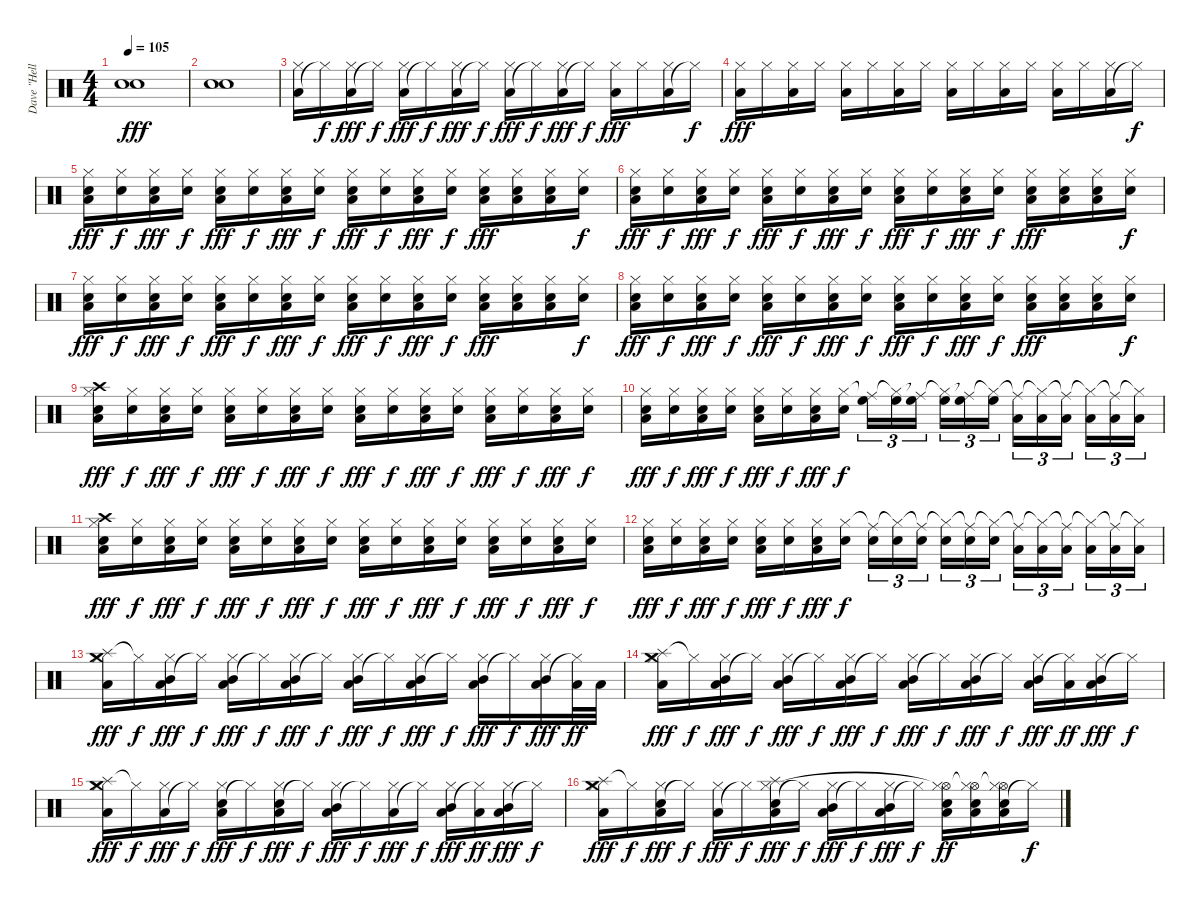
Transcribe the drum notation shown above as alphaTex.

\track ("Dave \"Hellstorm\" Chiarella" "Dave \"Hell") {solo instrument percussion}
\staff {score}
\articulation defaults
\ts (4 4)
\tempo 105
\clef neutral
\ks c
("Electric Snare (hit)" "Electric Snare (hit)").1{dy fff} |
("Electric Snare (hit)" "Electric Snare (hit)").1 |
("Low Floor Tom (hit)" "Hi-Hat (closed)").16 "Hi-Hat (closed)"{t}.16{dy f} ("Low Floor Tom (hit)" "Hi-Hat (closed)").16{dy fff} "Hi-Hat (closed)"{t}.16{dy f} ("Low Floor Tom (hit)" "Hi-Hat (closed)").16{dy fff} "Hi-Hat (closed)"{t}.16{dy f} ("Low Floor Tom (hit)" "Hi-Hat (closed)").16{dy fff} "Hi-Hat (closed)"{t}.16{dy f} ("Low Floor Tom (hit)" "Hi-Hat (closed)").16{dy fff} "Hi-Hat (closed)"{t}.16{dy f} ("Low Floor Tom (hit)" "Hi-Hat (closed)").16{dy fff} "Hi-Hat (closed)"{t}.16{dy f} ("Low Floor Tom (hit)" "Hi-Hat (closed)").16{dy fff} "Hi-Hat (closed)".16 ("Low Floor Tom (hit)" "Hi-Hat (closed)").16 "Hi-Hat (closed)"{t}.16{dy f} |
("Low Floor Tom (hit)" "Hi-Hat (closed)").16{dy fff} "Hi-Hat (closed)".16 ("Low Floor Tom (hit)" "Hi-Hat (closed)").16 "Hi-Hat (closed)".16 ("Low Floor Tom (hit)" "Hi-Hat (closed)").16 "Hi-Hat (closed)".16 ("Low Floor Tom (hit)" "Hi-Hat (closed)").16 "Hi-Hat (closed)".16 ("Low Floor Tom (hit)" "Hi-Hat (closed)").16 "Hi-Hat (closed)".16 ("Low Floor Tom (hit)" "Hi-Hat (closed)").16 "Hi-Hat (closed)".16 ("Low Floor Tom (hit)" "Hi-Hat (closed)").16 "Hi-Hat (closed)".16 ("Low Floor Tom (hit)" "Hi-Hat (closed)").16 "Hi-Hat (closed)"{t}.16{dy f} |
("Electric Snare (hit)" "Low Floor Tom (hit)" "Hi-Hat (closed)").16{dy fff} ("Electric Snare (hit)" "Hi-Hat (closed)").16{dy f} ("Electric Snare (hit)" "Low Floor Tom (hit)" "Hi-Hat (closed)").16{dy fff} ("Electric Snare (hit)" "Hi-Hat (closed)").16{dy f} ("Electric Snare (hit)" "Low Floor Tom (hit)" "Hi-Hat (closed)").16{dy fff} ("Electric Snare (hit)" "Hi-Hat (closed)").16{dy f} ("Electric Snare (hit)" "Low Floor Tom (hit)" "Hi-Hat (closed)").16{dy fff} ("Electric Snare (hit)" "Hi-Hat (closed)").16{dy f} ("Electric Snare (hit)" "Low Floor Tom (hit)" "Hi-Hat (closed)").16{dy fff} ("Electric Snare (hit)" "Hi-Hat (closed)").16{dy f} ("Electric Snare (hit)" "Low Floor Tom (hit)" "Hi-Hat (closed)").16{dy fff} ("Electric Snare (hit)" "Hi-Hat (closed)").16{dy f} ("Electric Snare (hit)" "Low Floor Tom (hit)" "Hi-Hat (closed)").16{dy fff} ("Electric Snare (hit)" "Low Floor Tom (hit)" "Hi-Hat (closed)").16 ("Electric Snare (hit)" "Low Floor Tom (hit)" "Hi-Hat (closed)").16 ("Electric Snare (hit)" "Hi-Hat (closed)").16{dy f} |
("Electric Snare (hit)" "Low Floor Tom (hit)" "Hi-Hat (closed)").16{dy fff} ("Electric Snare (hit)" "Hi-Hat (closed)").16{dy f} ("Electric Snare (hit)" "Low Floor Tom (hit)" "Hi-Hat (closed)").16{dy fff} ("Electric Snare (hit)" "Hi-Hat (closed)").16{dy f} ("Electric Snare (hit)" "Low Floor Tom (hit)" "Hi-Hat (closed)").16{dy fff} ("Electric Snare (hit)" "Hi-Hat (closed)").16{dy f} ("Electric Snare (hit)" "Low Floor Tom (hit)" "Hi-Hat (closed)").16{dy fff} ("Electric Snare (hit)" "Hi-Hat (closed)").16{dy f} ("Electric Snare (hit)" "Low Floor Tom (hit)" "Hi-Hat (closed)").16{dy fff} ("Electric Snare (hit)" "Hi-Hat (closed)").16{dy f} ("Electric Snare (hit)" "Low Floor Tom (hit)" "Hi-Hat (closed)").16{dy fff} ("Electric Snare (hit)" "Hi-Hat (closed)").16{dy f} ("Electric Snare (hit)" "Low Floor Tom (hit)" "Hi-Hat (closed)").16{dy fff} ("Electric Snare (hit)" "Low Floor Tom (hit)" "Hi-Hat (closed)").16 ("Electric Snare (hit)" "Low Floor Tom (hit)" "Hi-Hat (closed)").16 ("Electric Snare (hit)" "Hi-Hat (closed)").16{dy f} |
("Electric Snare (hit)" "Low Floor Tom (hit)" "Hi-Hat (closed)").16{dy fff} ("Electric Snare (hit)" "Hi-Hat (closed)").16{dy f} ("Electric Snare (hit)" "Low Floor Tom (hit)" "Hi-Hat (closed)").16{dy fff} ("Electric Snare (hit)" "Hi-Hat (closed)").16{dy f} ("Electric Snare (hit)" "Low Floor Tom (hit)" "Hi-Hat (closed)").16{dy fff} ("Electric Snare (hit)" "Hi-Hat (closed)").16{dy f} ("Electric Snare (hit)" "Low Floor Tom (hit)" "Hi-Hat (closed)").16{dy fff} ("Electric Snare (hit)" "Hi-Hat (closed)").16{dy f} ("Electric Snare (hit)" "Low Floor Tom (hit)" "Hi-Hat (closed)").16{dy fff} ("Electric Snare (hit)" "Hi-Hat (closed)").16{dy f} ("Electric Snare (hit)" "Low Floor Tom (hit)" "Hi-Hat (closed)").16{dy fff} ("Electric Snare (hit)" "Hi-Hat (closed)").16{dy f} ("Electric Snare (hit)" "Low Floor Tom (hit)" "Hi-Hat (closed)").16{dy fff} ("Electric Snare (hit)" "Low Floor Tom (hit)" "Hi-Hat (closed)").16 ("Electric Snare (hit)" "Low Floor Tom (hit)" "Hi-Hat (closed)").16 ("Electric Snare (hit)" "Hi-Hat (closed)").16{dy f} |
("Electric Snare (hit)" "Low Floor Tom (hit)" "Hi-Hat (closed)").16{dy fff} ("Electric Snare (hit)" "Hi-Hat (closed)").16{dy f} ("Electric Snare (hit)" "Low Floor Tom (hit)" "Hi-Hat (closed)").16{dy fff} ("Electric Snare (hit)" "Hi-Hat (closed)").16{dy f} ("Electric Snare (hit)" "Low Floor Tom (hit)" "Hi-Hat (closed)").16{dy fff} ("Electric Snare (hit)" "Hi-Hat (closed)").16{dy f} ("Electric Snare (hit)" "Low Floor Tom (hit)" "Hi-Hat (closed)").16{dy fff} ("Electric Snare (hit)" "Hi-Hat (closed)").16{dy f} ("Electric Snare (hit)" "Low Floor Tom (hit)" "Hi-Hat (closed)").16{dy fff} ("Electric Snare (hit)" "Hi-Hat (closed)").16{dy f} ("Electric Snare (hit)" "Low Floor Tom (hit)" "Hi-Hat (closed)").16{dy fff} ("Electric Snare (hit)" "Hi-Hat (closed)").16{dy f} ("Electric Snare (hit)" "Low Floor Tom (hit)" "Hi-Hat (closed)").16{dy fff} ("Electric Snare (hit)" "Low Floor Tom (hit)" "Hi-Hat (closed)").16 ("Electric Snare (hit)" "Low Floor Tom (hit)" "Hi-Hat (closed)").16 ("Electric Snare (hit)" "Hi-Hat (closed)").16{dy f} |
("Electric Snare (hit)" "Crash high (hit)" "Low Floor Tom (hit)" "Hi-Hat (closed)").16{dy fff} ("Electric Snare (hit)" "Hi-Hat (closed)").16{dy f} ("Electric Snare (hit)" "Low Floor Tom (hit)" "Hi-Hat (closed)").16{dy fff} ("Electric Snare (hit)" "Hi-Hat (closed)").16{dy f} ("Electric Snare (hit)" "Low Floor Tom (hit)" "Hi-Hat (closed)").16{dy fff} ("Electric Snare (hit)" "Hi-Hat (closed)").16{dy f} ("Electric Snare (hit)" "Low Floor Tom (hit)" "Hi-Hat (closed)").16{dy fff} ("Electric Snare (hit)" "Hi-Hat (closed)").16{dy f} ("Electric Snare (hit)" "Low Floor Tom (hit)" "Hi-Hat (closed)").16{dy fff} ("Electric Snare (hit)" "Hi-Hat (closed)").16{dy f} ("Electric Snare (hit)" "Low Floor Tom (hit)" "Hi-Hat (closed)").16{dy fff} ("Electric Snare (hit)" "Hi-Hat (closed)").16{dy f} ("Electric Snare (hit)" "Low Floor Tom (hit)" "Hi-Hat (closed)").16{dy fff} ("Electric Snare (hit)" "Hi-Hat (closed)").16{dy f} ("Electric Snare (hit)" "Low Floor Tom (hit)" "Hi-Hat (closed)").16{dy fff} ("Electric Snare (hit)" "Hi-Hat (closed)").16{dy f} |
("Electric Snare (hit)" "Low Floor Tom (hit)" "Hi-Hat (closed)").16{dy fff} ("Electric Snare (hit)" "Hi-Hat (closed)").16{dy f} ("Electric Snare (hit)" "Low Floor Tom (hit)" "Hi-Hat (closed)").16{dy fff} ("Electric Snare (hit)" "Hi-Hat (closed)").16{dy f} ("Electric Snare (hit)" "Low Floor Tom (hit)" "Hi-Hat (closed)").16{dy fff} ("Electric Snare (hit)" "Hi-Hat (closed)").16{dy f} ("Electric Snare (hit)" "Low Floor Tom (hit)" "Hi-Hat (closed)").16{dy fff} ("Electric Snare (hit)" "Hi-Hat (closed)").16{dy f} ("High Floor Tom (hit)" "Ride (middle)"{t}).16{tu (3 2)} ("High Floor Tom (hit)" "Hi-Hat (closed)"{t}).16{tu (3 2)} ("High Floor Tom (hit)" "Ride (middle)"{t}).16{tu (3 2) beam splitsecondary} ("High Floor Tom (hit)" "Hi-Hat (closed)"{t}).16{tu (3 2)} ("High Floor Tom (hit)" "Ride (middle)"{t}).16{tu (3 2)} ("High Floor Tom (hit)" "Hi-Hat (closed)"{t}).16{tu (3 2)} ("Low Tom (hit)" "Ride (middle)"{t}).16{tu (3 2)} ("Low Tom (hit)" "Hi-Hat (closed)"{t}).16{tu (3 2)} ("Low Tom (hit)" "Ride (middle)"{t}).16{tu (3 2) beam splitsecondary} ("Low Tom (hit)" "Hi-Hat (closed)"{t}).16{tu (3 2)} ("Low Tom (hit)" "Ride (middle)"{t}).16{tu (3 2)} ("Low Tom (hit)" "Hi-Hat (closed)"{t}).16{tu (3 2)} |
("Electric Snare (hit)" "Crash high (hit)" "Low Floor Tom (hit)" "Hi-Hat (closed)").16{dy fff} ("Electric Snare (hit)" "Hi-Hat (closed)").16{dy f} ("Electric Snare (hit)" "Low Floor Tom (hit)" "Hi-Hat (closed)").16{dy fff} ("Electric Snare (hit)" "Hi-Hat (closed)").16{dy f} ("Electric Snare (hit)" "Low Floor Tom (hit)" "Hi-Hat (closed)").16{dy fff} ("Electric Snare (hit)" "Hi-Hat (closed)").16{dy f} ("Electric Snare (hit)" "Low Floor Tom (hit)" "Hi-Hat (closed)").16{dy fff} ("Electric Snare (hit)" "Hi-Hat (closed)").16{dy f} ("Electric Snare (hit)" "Low Floor Tom (hit)" "Hi-Hat (closed)").16{dy fff} ("Electric Snare (hit)" "Hi-Hat (closed)").16{dy f} ("Electric Snare (hit)" "Low Floor Tom (hit)" "Hi-Hat (closed)").16{dy fff} ("Electric Snare (hit)" "Hi-Hat (closed)").16{dy f} ("Electric Snare (hit)" "Low Floor Tom (hit)" "Hi-Hat (closed)").16{dy fff} ("Electric Snare (hit)" "Hi-Hat (closed)").16{dy f} ("Electric Snare (hit)" "Low Floor Tom (hit)" "Hi-Hat (closed)").16{dy fff} ("Electric Snare (hit)" "Hi-Hat (closed)").16{dy f} |
("Electric Snare (hit)" "Low Floor Tom (hit)" "Hi-Hat (closed)").16{dy fff} ("Electric Snare (hit)" "Hi-Hat (closed)").16{dy f} ("Electric Snare (hit)" "Low Floor Tom (hit)" "Hi-Hat (closed)").16{dy fff} ("Electric Snare (hit)" "Hi-Hat (closed)").16{dy f} ("Electric Snare (hit)" "Low Floor Tom (hit)" "Hi-Hat (closed)").16{dy fff} ("Electric Snare (hit)" "Hi-Hat (closed)").16{dy f} ("Electric Snare (hit)" "Low Floor Tom (hit)" "Hi-Hat (closed)").16{dy fff} ("Electric Snare (hit)" "Hi-Hat (closed)").16{dy f} ("Electric Snare (hit)" "Ride (middle)"{t}).16{tu (3 2)} ("Electric Snare (hit)" "Hi-Hat (closed)"{t}).16{tu (3 2)} ("Electric Snare (hit)" "Ride (middle)"{t}).16{tu (3 2) beam splitsecondary} ("Electric Snare (hit)" "Hi-Hat (closed)"{t}).16{tu (3 2)} ("Electric Snare (hit)" "Ride (middle)"{t}).16{tu (3 2)} ("Electric Snare (hit)" "Hi-Hat (closed)"{t}).16{tu (3 2)} ("Low Tom (hit)" "Ride (middle)"{t}).16{tu (3 2)} ("Low Tom (hit)" "Hi-Hat (closed)"{t}).16{tu (3 2)} ("Low Tom (hit)" "Ride (middle)"{t}).16{tu (3 2) beam splitsecondary} ("Low Tom (hit)" "Hi-Hat (closed)"{t}).16{tu (3 2)} ("Low Tom (hit)" "Ride (middle)"{t}).16{tu (3 2)} ("Low Tom (hit)" "Hi-Hat (closed)"{t}).16{tu (3 2)} |
("Splash (hit)" "Crash medium (hit)" "Low Floor Tom (hit)" "Hi-Hat (closed)").16{dy fff} "Hi-Hat (closed)"{t}.16{dy f} ("Mid Tom (hit)" "Low Floor Tom (hit)" "Hi-Hat (closed)").16{dy fff} "Hi-Hat (closed)"{t}.16{dy f} ("Mid Tom (hit)" "Low Floor Tom (hit)" "Hi-Hat (closed)").16{dy fff} "Hi-Hat (closed)"{t}.16{dy f} ("Mid Tom (hit)" "Low Floor Tom (hit)" "Hi-Hat (closed)").16{dy fff} "Hi-Hat (closed)"{t}.16{dy f} ("Mid Tom (hit)" "Low Floor Tom (hit)" "Hi-Hat (closed)").16{dy fff} "Hi-Hat (closed)"{t}.16{dy f} ("Mid Tom (hit)" "Low Floor Tom (hit)" "Hi-Hat (closed)").16{dy fff} "Hi-Hat (closed)"{t}.16{dy f} ("Mid Tom (hit)" "Low Floor Tom (hit)" "Hi-Hat (closed)").16{dy fff} "Hi-Hat (closed)"{t}.16{dy f} ("Mid Tom (hit)" "Low Floor Tom (hit)" "Hi-Hat (closed)").16{dy fff} ("Low Floor Tom (hit)" "Hi-Hat (closed)"{t}).32{dy ff} "Low Floor Tom (hit)".32 |
("Splash (hit)" "Crash medium (hit)" "Low Floor Tom (hit)" "Hi-Hat (closed)").16{dy fff} "Hi-Hat (closed)"{t}.16{dy f} ("Mid Tom (hit)" "Low Floor Tom (hit)" "Hi-Hat (closed)").16{dy fff} "Hi-Hat (closed)"{t}.16{dy f} ("Mid Tom (hit)" "Low Floor Tom (hit)" "Hi-Hat (closed)").16{dy fff} "Hi-Hat (closed)"{t}.16{dy f} ("Mid Tom (hit)" "Low Floor Tom (hit)" "Hi-Hat (closed)").16{dy fff} "Hi-Hat (closed)"{t}.16{dy f} ("Mid Tom (hit)" "Low Floor Tom (hit)" "Hi-Hat (closed)").16{dy fff} "Hi-Hat (closed)"{t}.16{dy f} ("Mid Tom (hit)" "Low Floor Tom (hit)" "Hi-Hat (closed)").16{dy fff} "Hi-Hat (closed)"{t}.16{dy f} ("Mid Tom (hit)" "Low Floor Tom (hit)" "Hi-Hat (closed)").16{dy fff} ("Low Floor Tom (hit)" "Hi-Hat (closed)"{t}).16{dy ff} ("Mid Tom (hit)" "Low Floor Tom (hit)" "Hi-Hat (closed)").16{dy fff} "Hi-Hat (closed)"{t}.16{dy f} |
("Splash (hit)" "Crash medium (hit)" "Low Floor Tom (hit)" "Hi-Hat (closed)").16{dy fff} "Hi-Hat (closed)"{t}.16{dy f} ("Low Floor Tom (hit)" "Hi-Hat (closed)").16{dy fff} "Hi-Hat (closed)"{t}.16{dy f} ("Electric Snare (hit)" "Low Floor Tom (hit)" "Hi-Hat (closed)").16{dy fff} "Hi-Hat (closed)"{t}.16{dy f} ("Electric Snare (hit)" "Low Floor Tom (hit)" "Hi-Hat (closed)").16{dy fff} "Hi-Hat (closed)"{t}.16{dy f} ("Mid Tom (hit)" "Low Floor Tom (hit)" "Hi-Hat (closed)").16{dy fff} "Hi-Hat (closed)"{t}.16{dy f} ("Low Floor Tom (hit)" "Hi-Hat (closed)").16{dy fff} "Hi-Hat (closed)"{t}.16{dy f} ("Mid Tom (hit)" "Low Floor Tom (hit)" "Hi-Hat (closed)").16{dy fff} ("Low Floor Tom (hit)" "Hi-Hat (closed)"{t}).16{dy ff} ("Mid Tom (hit)" "Low Floor Tom (hit)" "Hi-Hat (closed)").16{dy fff} "Hi-Hat (closed)"{t}.16{dy f} |
("Splash (hit)" "Crash medium (hit)" "Low Floor Tom (hit)" "Hi-Hat (closed)").16{dy fff} "Hi-Hat (closed)"{t}.16{dy f} ("Electric Snare (hit)" "Low Floor Tom (hit)" "Hi-Hat (closed)").16{dy fff} "Hi-Hat (closed)"{t}.16{dy f} ("Low Floor Tom (hit)" "Hi-Hat (closed)").16{dy fff} "Hi-Hat (closed)"{t}.16{dy f} ("Electric Snare (hit)" "Splash (hit)" "Low Floor Tom (hit)" "Hi-Hat (closed)").16{dy fff} "Hi-Hat (closed)"{t}.16{dy f} ("Mid Tom (hit)" "Low Floor Tom (hit)" "Hi-Hat (closed)").16{dy fff} "Hi-Hat (closed)"{t}.16{dy f} ("Mid Tom (hit)" "Low Floor Tom (hit)" "Hi-Hat (closed)").16{dy fff} "Hi-Hat (closed)"{t}.16{dy f} ("Electric Snare (hit)" "Hi-Hat (open)" "Low Floor Tom (hit)" "Hi-Hat (closed)"{t}).16{dy ff} ("Electric Snare (hit)" "Hi-Hat (open)" "Low Floor Tom (hit)" "Hi-Hat (closed)"{t}).16 ("Electric Snare (hit)" "Hi-Hat (open)" "Low Floor Tom (hit)" "Hi-Hat (closed)"{t}).16 "Hi-Hat (closed)"{t}.16{dy f}
